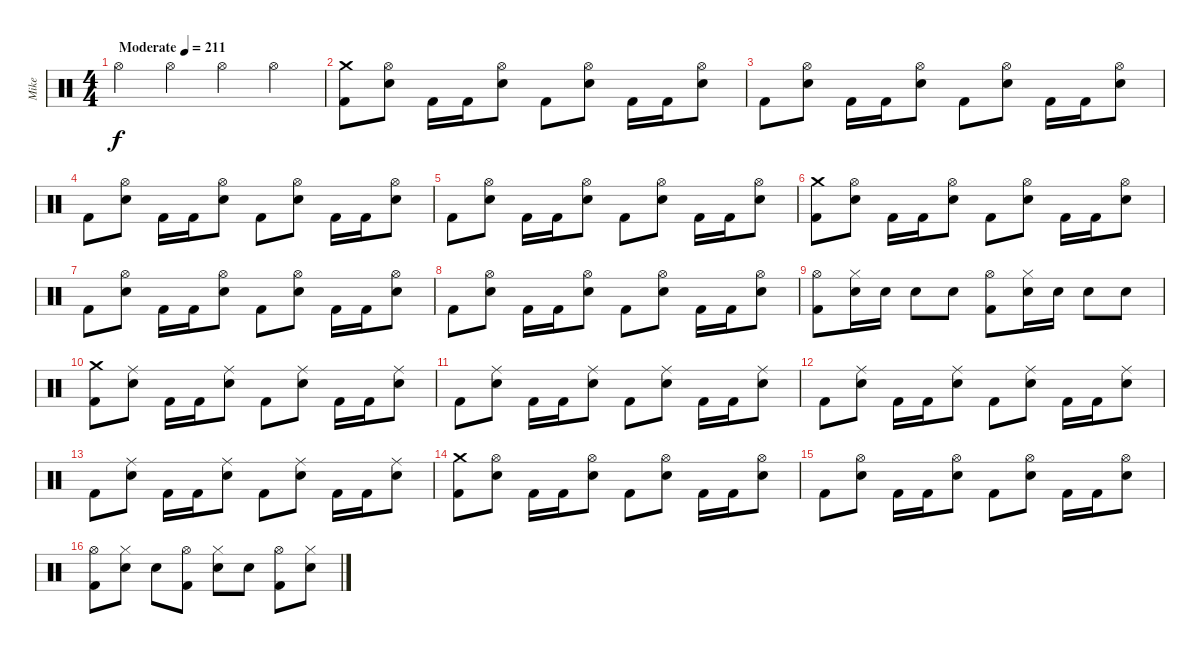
\track ("Mike" "Mike") {instrument percussion}
\staff {score}
\articulation defaults
\ts (4 4)
\tempo (211 "Moderate")
\clef neutral
\ks c "Hi-Hat (open)".4{dy f} "Hi-Hat (open)".4 "Hi-Hat (open)".4 "Hi-Hat (open)".4
|
("Crash medium (hit)" "Kick (hit) 2").8 ("Hi-Hat (open)" "Electric Snare (hit)").8 "Kick (hit) 2".16 "Kick (hit) 2".16 ("Hi-Hat (open)" "Electric Snare (hit)").8 "Kick (hit) 2".8 ("Hi-Hat (open)" "Electric Snare (hit)").8 "Kick (hit) 2".16 "Kick (hit) 2".16 ("Hi-Hat (open)" "Electric Snare (hit)").8 |
"Kick (hit) 2".8 ("Hi-Hat (open)" "Electric Snare (hit)").8 "Kick (hit) 2".16 "Kick (hit) 2".16 ("Hi-Hat (open)" "Electric Snare (hit)").8 "Kick (hit) 2".8 ("Hi-Hat (open)" "Electric Snare (hit)").8 "Kick (hit) 2".16 "Kick (hit) 2".16 ("Hi-Hat (open)" "Electric Snare (hit)").8 |
"Kick (hit) 2".8 ("Hi-Hat (open)" "Electric Snare (hit)").8 "Kick (hit) 2".16 "Kick (hit) 2".16 ("Hi-Hat (open)" "Electric Snare (hit)").8 "Kick (hit) 2".8 ("Hi-Hat (open)" "Electric Snare (hit)").8 "Kick (hit) 2".16 "Kick (hit) 2".16 ("Hi-Hat (open)" "Electric Snare (hit)").8 |
"Kick (hit) 2".8 ("Hi-Hat (open)" "Electric Snare (hit)").8 "Kick (hit) 2".16 "Kick (hit) 2".16 ("Hi-Hat (open)" "Electric Snare (hit)").8 "Kick (hit) 2".8 ("Hi-Hat (open)" "Electric Snare (hit)").8 "Kick (hit) 2".16 "Kick (hit) 2".16 ("Hi-Hat (open)" "Electric Snare (hit)").8 |
("Crash medium (hit)" "Kick (hit) 2").8 ("Hi-Hat (open)" "Electric Snare (hit)").8 "Kick (hit) 2".16 "Kick (hit) 2".16 ("Hi-Hat (open)" "Electric Snare (hit)").8 "Kick (hit) 2".8 ("Hi-Hat (open)" "Electric Snare (hit)").8 "Kick (hit) 2".16 "Kick (hit) 2".16 ("Hi-Hat (open)" "Electric Snare (hit)").8 |
"Kick (hit) 2".8 ("Hi-Hat (open)" "Electric Snare (hit)").8 "Kick (hit) 2".16 "Kick (hit) 2".16 ("Hi-Hat (open)" "Electric Snare (hit)").8 "Kick (hit) 2".8 ("Hi-Hat (open)" "Electric Snare (hit)").8 "Kick (hit) 2".16 "Kick (hit) 2".16 ("Hi-Hat (open)" "Electric Snare (hit)").8 |
"Kick (hit) 2".8 ("Hi-Hat (open)" "Electric Snare (hit)").8 "Kick (hit) 2".16 "Kick (hit) 2".16 ("Hi-Hat (open)" "Electric Snare (hit)").8 "Kick (hit) 2".8 ("Hi-Hat (open)" "Electric Snare (hit)").8 "Kick (hit) 2".16 "Kick (hit) 2".16 ("Hi-Hat (open)" "Electric Snare (hit)").8 |
("Hi-Hat (open)" "Kick (hit) 2").8 ("Hi-Hat (closed)" "Electric Snare (hit)").16 "Electric Snare (hit)".16 "Electric Snare (hit)".8 "Electric Snare (hit)".8 ("Hi-Hat (open)" "Kick (hit) 2").8 ("Hi-Hat (closed)" "Electric Snare (hit)").16 "Electric Snare (hit)".16 "Electric Snare (hit)".8 "Electric Snare (hit)".8 |
("Crash medium (hit)" "Kick (hit) 2").8 ("Ride (middle)" "Electric Snare (hit)").8 "Kick (hit) 2".16 "Kick (hit) 2".16 ("Ride (middle)" "Electric Snare (hit)").8 "Kick (hit) 2".8 ("Ride (middle)" "Electric Snare (hit)").8 "Kick (hit) 2".16 "Kick (hit) 2".16 ("Ride (middle)" "Electric Snare (hit)").8 |
"Kick (hit) 2".8 ("Ride (middle)" "Electric Snare (hit)").8 "Kick (hit) 2".16 "Kick (hit) 2".16 ("Ride (middle)" "Electric Snare (hit)").8 "Kick (hit) 2".8 ("Ride (middle)" "Electric Snare (hit)").8 "Kick (hit) 2".16 "Kick (hit) 2".16 ("Ride (middle)" "Electric Snare (hit)").8 |
"Kick (hit) 2".8 ("Ride (middle)" "Electric Snare (hit)").8 "Kick (hit) 2".16 "Kick (hit) 2".16 ("Ride (middle)" "Electric Snare (hit)").8 "Kick (hit) 2".8 ("Ride (middle)" "Electric Snare (hit)").8 "Kick (hit) 2".16 "Kick (hit) 2".16 ("Ride (middle)" "Electric Snare (hit)").8 |
"Kick (hit) 2".8 ("Ride (middle)" "Electric Snare (hit)").8 "Kick (hit) 2".16 "Kick (hit) 2".16 ("Ride (middle)" "Electric Snare (hit)").8 "Kick (hit) 2".8 ("Ride (middle)" "Electric Snare (hit)").8 "Kick (hit) 2".16 "Kick (hit) 2".16 ("Ride (middle)" "Electric Snare (hit)").8 |
("Crash medium (hit)" "Kick (hit) 2").8 ("Hi-Hat (open)" "Electric Snare (hit)").8 "Kick (hit) 2".16 "Kick (hit) 2".16 ("Hi-Hat (open)" "Electric Snare (hit)").8 "Kick (hit) 2".8 ("Hi-Hat (open)" "Electric Snare (hit)").8 "Kick (hit) 2".16 "Kick (hit) 2".16 ("Hi-Hat (open)" "Electric Snare (hit)").8 |
"Kick (hit) 2".8 ("Hi-Hat (open)" "Electric Snare (hit)").8 "Kick (hit) 2".16 "Kick (hit) 2".16 ("Hi-Hat (open)" "Electric Snare (hit)").8 "Kick (hit) 2".8 ("Hi-Hat (open)" "Electric Snare (hit)").8 "Kick (hit) 2".16 "Kick (hit) 2".16 ("Hi-Hat (open)" "Electric Snare (hit)").8 |
("Hi-Hat (open)" "Kick (hit) 2").8 ("Hi-Hat (closed)" "Electric Snare (hit)").8 "Electric Snare (hit)".8 ("Hi-Hat (open)" "Kick (hit) 2").8 ("Hi-Hat (closed)" "Electric Snare (hit)").8 "Electric Snare (hit)".8 ("Hi-Hat (open)" "Kick (hit) 2").8 ("Hi-Hat (closed)" "Electric Snare (hit)").8
